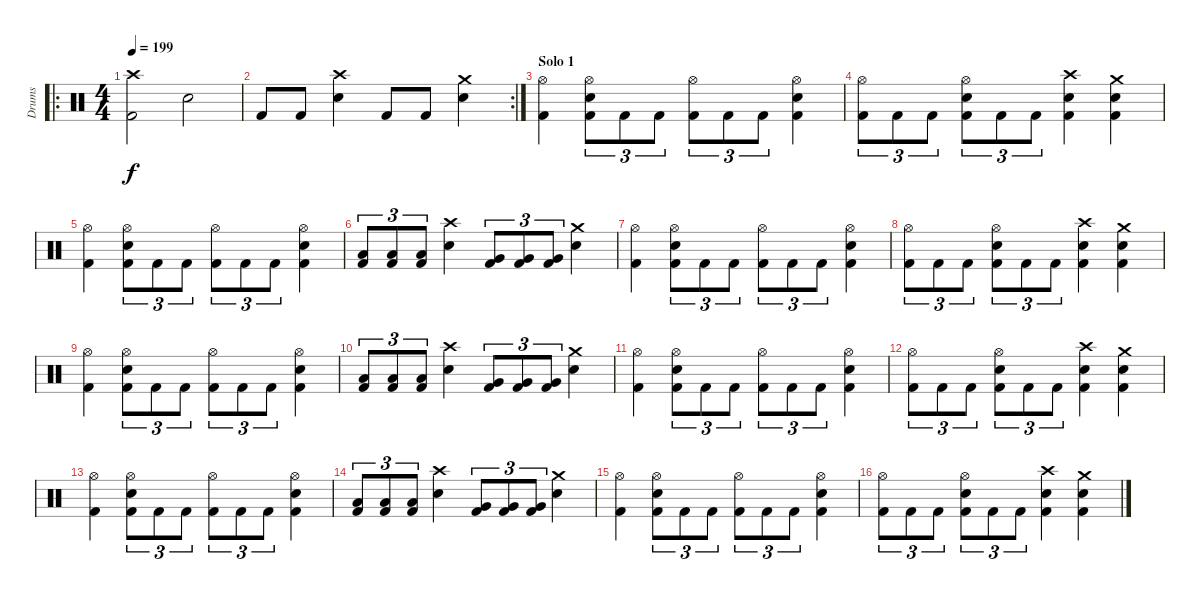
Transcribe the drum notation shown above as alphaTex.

\track ("Drums" "Drums") {instrument percussion}
\staff {score}
\articulation defaults
\ro
\ts (4 4)
\tempo 199
\clef neutral
\ks c
("Crash high (hit)" "Kick (hit) 2").2{dy f} "Electric Snare (hit)".2 |
\rc 2 "Kick (hit) 2".8 "Kick (hit) 2".8
("Crash high (hit)" "Electric Snare (hit)").4 "Kick (hit) 2".8 "Kick (hit) 2".8 ("Crash medium (hit)" "Electric Snare (hit)").4 |
\section ("" "Solo 1")
("Hi-Hat (open)" "Kick (hit) 2").4 ("Hi-Hat (open)" "Electric Snare (hit)" "Kick (hit) 2").8{tu (3 2)} "Kick (hit) 2".8{tu (3 2)} "Kick (hit) 2".8{tu (3 2)} ("Hi-Hat (open)" "Kick (hit) 2").8{tu (3 2)} "Kick (hit) 2".8{tu (3 2)} "Kick (hit) 2".8{tu (3 2)} ("Hi-Hat (open)" "Electric Snare (hit)" "Kick (hit) 2").4 |
("Hi-Hat (open)" "Kick (hit) 2").8{tu (3 2)} "Kick (hit) 2".8{tu (3 2)} "Kick (hit) 2".8{tu (3 2)} ("Hi-Hat (open)" "Electric Snare (hit)" "Kick (hit) 2").8{tu (3 2)} "Kick (hit) 2".8{tu (3 2)} "Kick (hit) 2".8{tu (3 2)} ("Crash high (hit)" "Electric Snare (hit)" "Kick (hit) 2").4 ("Crash medium (hit)" "Electric Snare (hit)" "Kick (hit) 2").4 |
("Hi-Hat (open)" "Kick (hit) 2").4 ("Hi-Hat (open)" "Electric Snare (hit)" "Kick (hit) 2").8{tu (3 2)} "Kick (hit) 2".8{tu (3 2)} "Kick (hit) 2".8{tu (3 2)} ("Hi-Hat (open)" "Kick (hit) 2").8{tu (3 2)} "Kick (hit) 2".8{tu (3 2)} "Kick (hit) 2".8{tu (3 2)} ("Hi-Hat (open)" "Electric Snare (hit)" "Kick (hit) 2").4 |
("Low Tom (hit)" "Kick (hit) 2").8{tu (3 2)} ("Low Tom (hit)" "Kick (hit) 2").8{tu (3 2)} ("Low Tom (hit)" "Kick (hit) 2").8{tu (3 2)} ("Crash high (hit)" "Electric Snare (hit)").4 ("Very Low Tom (hit)" "Kick (hit) 2").8{tu (3 2)} ("Very Low Tom (hit)" "Kick (hit) 2").8{tu (3 2)} ("Very Low Tom (hit)" "Kick (hit) 2").8{tu (3 2)} ("Crash medium (hit)" "Electric Snare (hit)").4 |
("Hi-Hat (open)" "Kick (hit) 2").4 ("Hi-Hat (open)" "Electric Snare (hit)" "Kick (hit) 2").8{tu (3 2)} "Kick (hit) 2".8{tu (3 2)} "Kick (hit) 2".8{tu (3 2)} ("Hi-Hat (open)" "Kick (hit) 2").8{tu (3 2)} "Kick (hit) 2".8{tu (3 2)} "Kick (hit) 2".8{tu (3 2)} ("Hi-Hat (open)" "Electric Snare (hit)" "Kick (hit) 2").4 |
("Hi-Hat (open)" "Kick (hit) 2").8{tu (3 2)} "Kick (hit) 2".8{tu (3 2)} "Kick (hit) 2".8{tu (3 2)} ("Hi-Hat (open)" "Electric Snare (hit)" "Kick (hit) 2").8{tu (3 2)} "Kick (hit) 2".8{tu (3 2)} "Kick (hit) 2".8{tu (3 2)} ("Crash high (hit)" "Electric Snare (hit)" "Kick (hit) 2").4 ("Crash medium (hit)" "Electric Snare (hit)" "Kick (hit) 2").4 |
("Hi-Hat (open)" "Kick (hit) 2").4 ("Hi-Hat (open)" "Electric Snare (hit)" "Kick (hit) 2").8{tu (3 2)} "Kick (hit) 2".8{tu (3 2)} "Kick (hit) 2".8{tu (3 2)} ("Hi-Hat (open)" "Kick (hit) 2").8{tu (3 2)} "Kick (hit) 2".8{tu (3 2)} "Kick (hit) 2".8{tu (3 2)} ("Hi-Hat (open)" "Electric Snare (hit)" "Kick (hit) 2").4 |
("Low Tom (hit)" "Kick (hit) 2").8{tu (3 2)} ("Low Tom (hit)" "Kick (hit) 2").8{tu (3 2)} ("Low Tom (hit)" "Kick (hit) 2").8{tu (3 2)} ("Crash high (hit)" "Electric Snare (hit)").4 ("Very Low Tom (hit)" "Kick (hit) 2").8{tu (3 2)} ("Very Low Tom (hit)" "Kick (hit) 2").8{tu (3 2)} ("Very Low Tom (hit)" "Kick (hit) 2").8{tu (3 2)} ("Crash medium (hit)" "Electric Snare (hit)").4 |
("Hi-Hat (open)" "Kick (hit) 2").4 ("Hi-Hat (open)" "Electric Snare (hit)" "Kick (hit) 2").8{tu (3 2)} "Kick (hit) 2".8{tu (3 2)} "Kick (hit) 2".8{tu (3 2)} ("Hi-Hat (open)" "Kick (hit) 2").8{tu (3 2)} "Kick (hit) 2".8{tu (3 2)} "Kick (hit) 2".8{tu (3 2)} ("Hi-Hat (open)" "Electric Snare (hit)" "Kick (hit) 2").4 |
("Hi-Hat (open)" "Kick (hit) 2").8{tu (3 2)} "Kick (hit) 2".8{tu (3 2)} "Kick (hit) 2".8{tu (3 2)} ("Hi-Hat (open)" "Electric Snare (hit)" "Kick (hit) 2").8{tu (3 2)} "Kick (hit) 2".8{tu (3 2)} "Kick (hit) 2".8{tu (3 2)} ("Crash high (hit)" "Electric Snare (hit)" "Kick (hit) 2").4 ("Crash medium (hit)" "Electric Snare (hit)" "Kick (hit) 2").4 |
("Hi-Hat (open)" "Kick (hit) 2").4 ("Hi-Hat (open)" "Electric Snare (hit)" "Kick (hit) 2").8{tu (3 2)} "Kick (hit) 2".8{tu (3 2)} "Kick (hit) 2".8{tu (3 2)} ("Hi-Hat (open)" "Kick (hit) 2").8{tu (3 2)} "Kick (hit) 2".8{tu (3 2)} "Kick (hit) 2".8{tu (3 2)} ("Hi-Hat (open)" "Electric Snare (hit)" "Kick (hit) 2").4 |
("Low Tom (hit)" "Kick (hit) 2").8{tu (3 2)} ("Low Tom (hit)" "Kick (hit) 2").8{tu (3 2)} ("Low Tom (hit)" "Kick (hit) 2").8{tu (3 2)} ("Crash high (hit)" "Electric Snare (hit)").4 ("Very Low Tom (hit)" "Kick (hit) 2").8{tu (3 2)} ("Very Low Tom (hit)" "Kick (hit) 2").8{tu (3 2)} ("Very Low Tom (hit)" "Kick (hit) 2").8{tu (3 2)} ("Crash medium (hit)" "Electric Snare (hit)").4 |
("Hi-Hat (open)" "Kick (hit) 2").4 ("Hi-Hat (open)" "Electric Snare (hit)" "Kick (hit) 2").8{tu (3 2)} "Kick (hit) 2".8{tu (3 2)} "Kick (hit) 2".8{tu (3 2)} ("Hi-Hat (open)" "Kick (hit) 2").8{tu (3 2)} "Kick (hit) 2".8{tu (3 2)} "Kick (hit) 2".8{tu (3 2)} ("Hi-Hat (open)" "Electric Snare (hit)" "Kick (hit) 2").4 |
("Hi-Hat (open)" "Kick (hit) 2").8{tu (3 2)} "Kick (hit) 2".8{tu (3 2)} "Kick (hit) 2".8{tu (3 2)} ("Hi-Hat (open)" "Electric Snare (hit)" "Kick (hit) 2").8{tu (3 2)} "Kick (hit) 2".8{tu (3 2)} "Kick (hit) 2".8{tu (3 2)} ("Crash high (hit)" "Electric Snare (hit)" "Kick (hit) 2").4 ("Crash medium (hit)" "Electric Snare (hit)" "Kick (hit) 2").4
